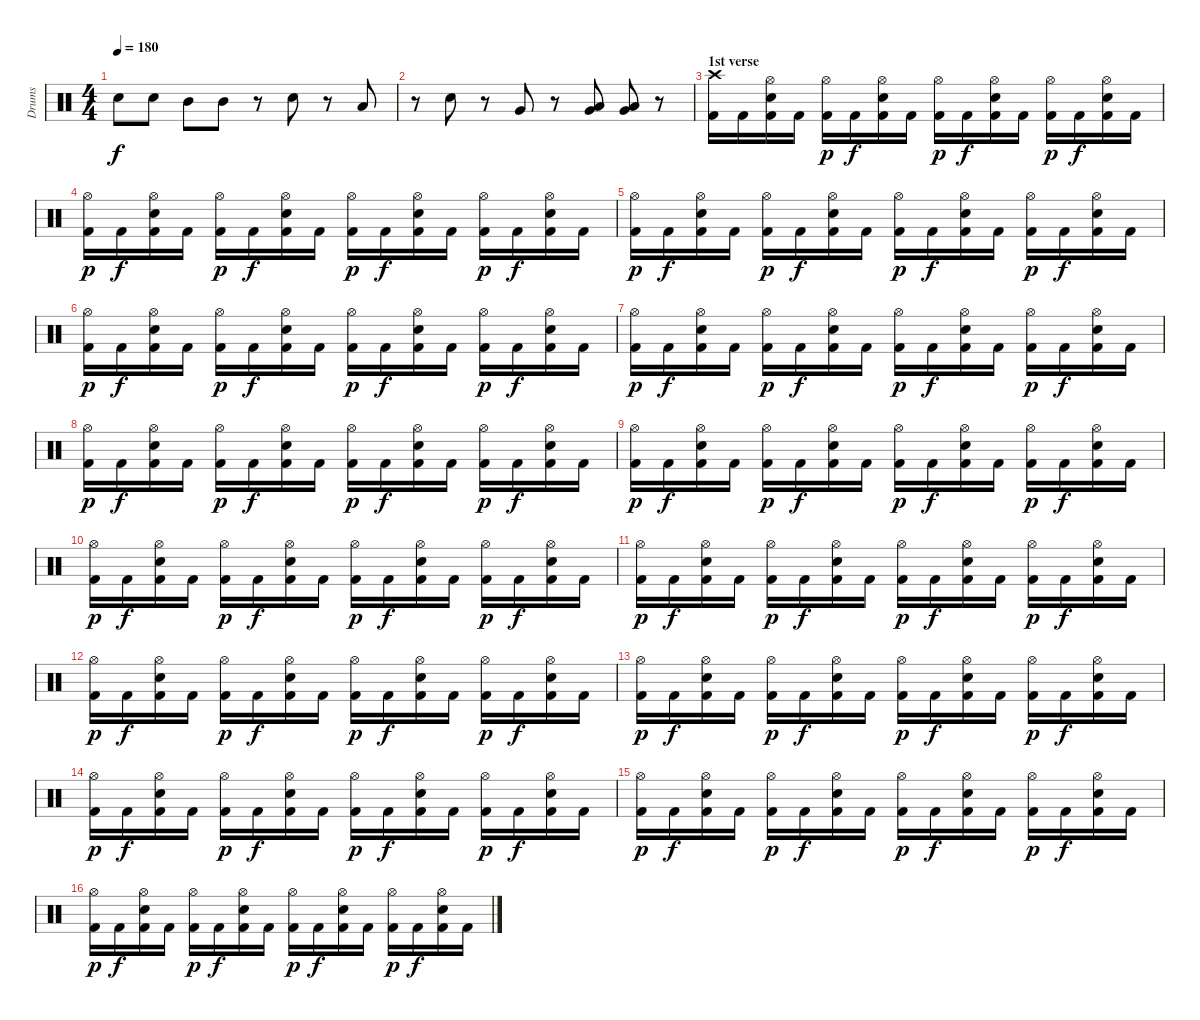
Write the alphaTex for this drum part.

\track ("Drums" "Drums") {instrument percussion}
\staff {score}
\articulation defaults
\ts (4 4)
\tempo 180
\clef neutral
\ks c "Snare (hit) 2".8{dy f} "Snare (hit) 2".8 "Mid Tom (hit)".8 "Mid Tom (hit)".8
r.8 "Snare (hit) 2".8 r.8 "Low Tom (hit)".8 |
r.8 "Snare (hit) 2".8 r.8 "Very Low Tom (hit)".8 r.8 ("Very Low Tom (hit)" "Low Floor Tom (hit)").8 ("Very Low Tom (hit)" "Low Floor Tom (hit)").8 r.8 |
\section ("" "1st verse")
("Crash high (hit)" "Kick (hit) 2").16 "Kick (hit) 2".16 ("Hi-Hat (open)" "Snare (hit) 2" "Kick (hit) 2").16 "Kick (hit) 2".16 ("Hi-Hat (open)" "Kick (hit) 2").16{dy p} "Kick (hit) 2".16{dy f} ("Hi-Hat (open)" "Snare (hit) 2" "Kick (hit) 2").16 "Kick (hit) 2".16 ("Hi-Hat (open)" "Kick (hit) 2").16{dy p} "Kick (hit) 2".16{dy f} ("Hi-Hat (open)" "Snare (hit) 2" "Kick (hit) 2").16 "Kick (hit) 2".16 ("Hi-Hat (open)" "Kick (hit) 2").16{dy p} "Kick (hit) 2".16{dy f} ("Hi-Hat (open)" "Snare (hit) 2" "Kick (hit) 2").16 "Kick (hit) 2".16 |
("Hi-Hat (open)" "Kick (hit) 2").16{dy p} "Kick (hit) 2".16{dy f} ("Hi-Hat (open)" "Snare (hit) 2" "Kick (hit) 2").16 "Kick (hit) 2".16 ("Hi-Hat (open)" "Kick (hit) 2").16{dy p} "Kick (hit) 2".16{dy f} ("Hi-Hat (open)" "Snare (hit) 2" "Kick (hit) 2").16 "Kick (hit) 2".16 ("Hi-Hat (open)" "Kick (hit) 2").16{dy p} "Kick (hit) 2".16{dy f} ("Hi-Hat (open)" "Snare (hit) 2" "Kick (hit) 2").16 "Kick (hit) 2".16 ("Hi-Hat (open)" "Kick (hit) 2").16{dy p} "Kick (hit) 2".16{dy f} ("Hi-Hat (open)" "Snare (hit) 2" "Kick (hit) 2").16 "Kick (hit) 2".16 |
("Hi-Hat (open)" "Kick (hit) 2").16{dy p} "Kick (hit) 2".16{dy f} ("Hi-Hat (open)" "Snare (hit) 2" "Kick (hit) 2").16 "Kick (hit) 2".16 ("Hi-Hat (open)" "Kick (hit) 2").16{dy p} "Kick (hit) 2".16{dy f} ("Hi-Hat (open)" "Snare (hit) 2" "Kick (hit) 2").16 "Kick (hit) 2".16 ("Hi-Hat (open)" "Kick (hit) 2").16{dy p} "Kick (hit) 2".16{dy f} ("Hi-Hat (open)" "Snare (hit) 2" "Kick (hit) 2").16 "Kick (hit) 2".16 ("Hi-Hat (open)" "Kick (hit) 2").16{dy p} "Kick (hit) 2".16{dy f} ("Hi-Hat (open)" "Snare (hit) 2" "Kick (hit) 2").16 "Kick (hit) 2".16 |
("Hi-Hat (open)" "Kick (hit) 2").16{dy p} "Kick (hit) 2".16{dy f} ("Hi-Hat (open)" "Snare (hit) 2" "Kick (hit) 2").16 "Kick (hit) 2".16 ("Hi-Hat (open)" "Kick (hit) 2").16{dy p} "Kick (hit) 2".16{dy f} ("Hi-Hat (open)" "Snare (hit) 2" "Kick (hit) 2").16 "Kick (hit) 2".16 ("Hi-Hat (open)" "Kick (hit) 2").16{dy p} "Kick (hit) 2".16{dy f} ("Hi-Hat (open)" "Snare (hit) 2" "Kick (hit) 2").16 "Kick (hit) 2".16 ("Hi-Hat (open)" "Kick (hit) 2").16{dy p} "Kick (hit) 2".16{dy f} ("Hi-Hat (open)" "Snare (hit) 2" "Kick (hit) 2").16 "Kick (hit) 2".16 |
("Hi-Hat (open)" "Kick (hit) 2").16{dy p} "Kick (hit) 2".16{dy f} ("Hi-Hat (open)" "Snare (hit) 2" "Kick (hit) 2").16 "Kick (hit) 2".16 ("Hi-Hat (open)" "Kick (hit) 2").16{dy p} "Kick (hit) 2".16{dy f} ("Hi-Hat (open)" "Snare (hit) 2" "Kick (hit) 2").16 "Kick (hit) 2".16 ("Hi-Hat (open)" "Kick (hit) 2").16{dy p} "Kick (hit) 2".16{dy f} ("Hi-Hat (open)" "Snare (hit) 2" "Kick (hit) 2").16 "Kick (hit) 2".16 ("Hi-Hat (open)" "Kick (hit) 2").16{dy p} "Kick (hit) 2".16{dy f} ("Hi-Hat (open)" "Snare (hit) 2" "Kick (hit) 2").16 "Kick (hit) 2".16 |
("Hi-Hat (open)" "Kick (hit) 2").16{dy p} "Kick (hit) 2".16{dy f} ("Hi-Hat (open)" "Snare (hit) 2" "Kick (hit) 2").16 "Kick (hit) 2".16 ("Hi-Hat (open)" "Kick (hit) 2").16{dy p} "Kick (hit) 2".16{dy f} ("Hi-Hat (open)" "Snare (hit) 2" "Kick (hit) 2").16 "Kick (hit) 2".16 ("Hi-Hat (open)" "Kick (hit) 2").16{dy p} "Kick (hit) 2".16{dy f} ("Hi-Hat (open)" "Snare (hit) 2" "Kick (hit) 2").16 "Kick (hit) 2".16 ("Hi-Hat (open)" "Kick (hit) 2").16{dy p} "Kick (hit) 2".16{dy f} ("Hi-Hat (open)" "Snare (hit) 2" "Kick (hit) 2").16 "Kick (hit) 2".16 |
("Hi-Hat (open)" "Kick (hit) 2").16{dy p} "Kick (hit) 2".16{dy f} ("Hi-Hat (open)" "Snare (hit) 2" "Kick (hit) 2").16 "Kick (hit) 2".16 ("Hi-Hat (open)" "Kick (hit) 2").16{dy p} "Kick (hit) 2".16{dy f} ("Hi-Hat (open)" "Snare (hit) 2" "Kick (hit) 2").16 "Kick (hit) 2".16 ("Hi-Hat (open)" "Kick (hit) 2").16{dy p} "Kick (hit) 2".16{dy f} ("Hi-Hat (open)" "Snare (hit) 2" "Kick (hit) 2").16 "Kick (hit) 2".16 ("Hi-Hat (open)" "Kick (hit) 2").16{dy p} "Kick (hit) 2".16{dy f} ("Hi-Hat (open)" "Snare (hit) 2" "Kick (hit) 2").16 "Kick (hit) 2".16 |
("Hi-Hat (open)" "Kick (hit) 2").16{dy p} "Kick (hit) 2".16{dy f} ("Hi-Hat (open)" "Snare (hit) 2" "Kick (hit) 2").16 "Kick (hit) 2".16 ("Hi-Hat (open)" "Kick (hit) 2").16{dy p} "Kick (hit) 2".16{dy f} ("Hi-Hat (open)" "Snare (hit) 2" "Kick (hit) 2").16 "Kick (hit) 2".16 ("Hi-Hat (open)" "Kick (hit) 2").16{dy p} "Kick (hit) 2".16{dy f} ("Hi-Hat (open)" "Snare (hit) 2" "Kick (hit) 2").16 "Kick (hit) 2".16 ("Hi-Hat (open)" "Kick (hit) 2").16{dy p} "Kick (hit) 2".16{dy f} ("Hi-Hat (open)" "Snare (hit) 2" "Kick (hit) 2").16 "Kick (hit) 2".16 |
("Hi-Hat (open)" "Kick (hit) 2").16{dy p} "Kick (hit) 2".16{dy f} ("Hi-Hat (open)" "Snare (hit) 2" "Kick (hit) 2").16 "Kick (hit) 2".16 ("Hi-Hat (open)" "Kick (hit) 2").16{dy p} "Kick (hit) 2".16{dy f} ("Hi-Hat (open)" "Snare (hit) 2" "Kick (hit) 2").16 "Kick (hit) 2".16 ("Hi-Hat (open)" "Kick (hit) 2").16{dy p} "Kick (hit) 2".16{dy f} ("Hi-Hat (open)" "Snare (hit) 2" "Kick (hit) 2").16 "Kick (hit) 2".16 ("Hi-Hat (open)" "Kick (hit) 2").16{dy p} "Kick (hit) 2".16{dy f} ("Hi-Hat (open)" "Snare (hit) 2" "Kick (hit) 2").16 "Kick (hit) 2".16 |
("Hi-Hat (open)" "Kick (hit) 2").16{dy p} "Kick (hit) 2".16{dy f} ("Hi-Hat (open)" "Snare (hit) 2" "Kick (hit) 2").16 "Kick (hit) 2".16 ("Hi-Hat (open)" "Kick (hit) 2").16{dy p} "Kick (hit) 2".16{dy f} ("Hi-Hat (open)" "Snare (hit) 2" "Kick (hit) 2").16 "Kick (hit) 2".16 ("Hi-Hat (open)" "Kick (hit) 2").16{dy p} "Kick (hit) 2".16{dy f} ("Hi-Hat (open)" "Snare (hit) 2" "Kick (hit) 2").16 "Kick (hit) 2".16 ("Hi-Hat (open)" "Kick (hit) 2").16{dy p} "Kick (hit) 2".16{dy f} ("Hi-Hat (open)" "Snare (hit) 2" "Kick (hit) 2").16 "Kick (hit) 2".16 |
("Hi-Hat (open)" "Kick (hit) 2").16{dy p} "Kick (hit) 2".16{dy f} ("Hi-Hat (open)" "Snare (hit) 2" "Kick (hit) 2").16 "Kick (hit) 2".16 ("Hi-Hat (open)" "Kick (hit) 2").16{dy p} "Kick (hit) 2".16{dy f} ("Hi-Hat (open)" "Snare (hit) 2" "Kick (hit) 2").16 "Kick (hit) 2".16 ("Hi-Hat (open)" "Kick (hit) 2").16{dy p} "Kick (hit) 2".16{dy f} ("Hi-Hat (open)" "Snare (hit) 2" "Kick (hit) 2").16 "Kick (hit) 2".16 ("Hi-Hat (open)" "Kick (hit) 2").16{dy p} "Kick (hit) 2".16{dy f} ("Hi-Hat (open)" "Snare (hit) 2" "Kick (hit) 2").16 "Kick (hit) 2".16 |
("Hi-Hat (open)" "Kick (hit) 2").16{dy p} "Kick (hit) 2".16{dy f} ("Hi-Hat (open)" "Snare (hit) 2" "Kick (hit) 2").16 "Kick (hit) 2".16 ("Hi-Hat (open)" "Kick (hit) 2").16{dy p} "Kick (hit) 2".16{dy f} ("Hi-Hat (open)" "Snare (hit) 2" "Kick (hit) 2").16 "Kick (hit) 2".16 ("Hi-Hat (open)" "Kick (hit) 2").16{dy p} "Kick (hit) 2".16{dy f} ("Hi-Hat (open)" "Snare (hit) 2" "Kick (hit) 2").16 "Kick (hit) 2".16 ("Hi-Hat (open)" "Kick (hit) 2").16{dy p} "Kick (hit) 2".16{dy f} ("Hi-Hat (open)" "Snare (hit) 2" "Kick (hit) 2").16 "Kick (hit) 2".16 |
("Hi-Hat (open)" "Kick (hit) 2").16{dy p} "Kick (hit) 2".16{dy f} ("Hi-Hat (open)" "Snare (hit) 2" "Kick (hit) 2").16 "Kick (hit) 2".16 ("Hi-Hat (open)" "Kick (hit) 2").16{dy p} "Kick (hit) 2".16{dy f} ("Hi-Hat (open)" "Snare (hit) 2" "Kick (hit) 2").16 "Kick (hit) 2".16 ("Hi-Hat (open)" "Kick (hit) 2").16{dy p} "Kick (hit) 2".16{dy f} ("Hi-Hat (open)" "Snare (hit) 2" "Kick (hit) 2").16 "Kick (hit) 2".16 ("Hi-Hat (open)" "Kick (hit) 2").16{dy p} "Kick (hit) 2".16{dy f} ("Hi-Hat (open)" "Snare (hit) 2" "Kick (hit) 2").16 "Kick (hit) 2".16 |
("Hi-Hat (open)" "Kick (hit) 2").16{dy p} "Kick (hit) 2".16{dy f} ("Hi-Hat (open)" "Snare (hit) 2" "Kick (hit) 2").16 "Kick (hit) 2".16 ("Hi-Hat (open)" "Kick (hit) 2").16{dy p} "Kick (hit) 2".16{dy f} ("Hi-Hat (open)" "Snare (hit) 2" "Kick (hit) 2").16 "Kick (hit) 2".16 ("Hi-Hat (open)" "Kick (hit) 2").16{dy p} "Kick (hit) 2".16{dy f} ("Hi-Hat (open)" "Snare (hit) 2" "Kick (hit) 2").16 "Kick (hit) 2".16 ("Hi-Hat (open)" "Kick (hit) 2").16{dy p} "Kick (hit) 2".16{dy f} ("Hi-Hat (open)" "Snare (hit) 2" "Kick (hit) 2").16 "Kick (hit) 2".16
